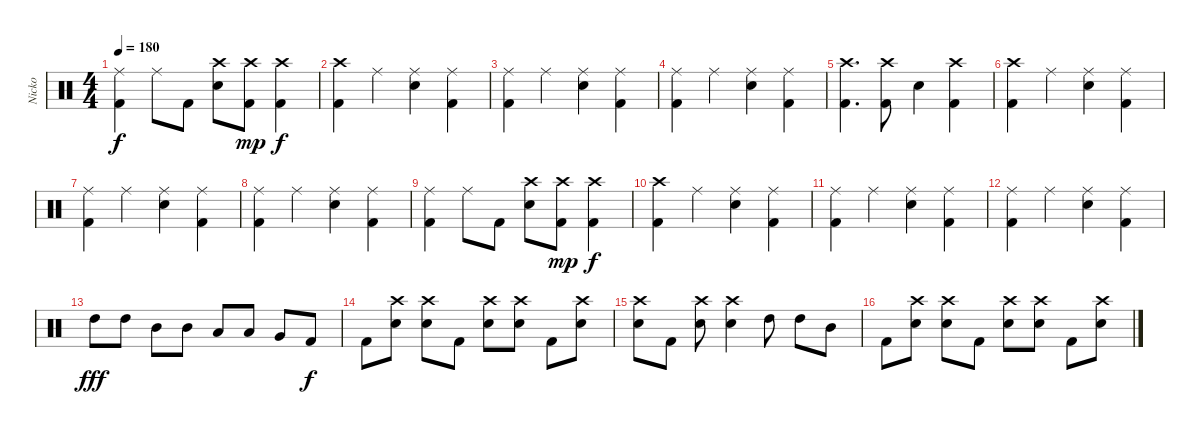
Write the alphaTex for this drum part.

\track ("Nicko" "Nicko") {instrument percussion}
\staff {score}
\articulation defaults
\ts (4 4)
\tempo 180
\clef neutral
\ks c
("Ride (middle)" "Kick (hit) 2").4{dy f} "Ride (middle)".8 "Kick (hit) 2".8 ("Crash high (hit)" "Snare (hit) 2").8 ("Crash high (hit)" "Kick (hit) 2").8{dy mp} ("Crash high (hit)" "Kick (hit) 2").4{dy f} |
("Crash high (hit)" "Kick (hit) 2").4 "Ride (middle)".4 ("Ride (middle)" "Snare (hit) 2").4 ("Ride (middle)" "Kick (hit) 2").4 |
("Ride (middle)" "Kick (hit) 2").4 "Ride (middle)".4 ("Ride (middle)" "Snare (hit) 2").4 ("Ride (middle)" "Kick (hit) 2").4 |
("Ride (middle)" "Kick (hit) 2").4 "Ride (middle)".4 ("Ride (middle)" "Snare (hit) 2").4 ("Ride (middle)" "Kick (hit) 2").4 |
("Crash high (hit)" "Kick (hit) 2").4{d} ("Crash high (hit)" "Kick (hit) 2").8 "Snare (hit) 2".4 ("Crash high (hit)" "Kick (hit) 2").4 |
("Crash high (hit)" "Kick (hit) 2").4 "Ride (middle)".4 ("Ride (middle)" "Snare (hit) 2").4 ("Ride (middle)" "Kick (hit) 2").4 |
("Ride (middle)" "Kick (hit) 2").4 "Ride (middle)".4 ("Ride (middle)" "Snare (hit) 2").4 ("Ride (middle)" "Kick (hit) 2").4 |
("Ride (middle)" "Kick (hit) 2").4 "Ride (middle)".4 ("Ride (middle)" "Snare (hit) 2").4 ("Ride (middle)" "Kick (hit) 2").4 |
("Ride (middle)" "Kick (hit) 2").4 "Ride (middle)".8 "Kick (hit) 2".8 ("Crash high (hit)" "Snare (hit) 2").8 ("Crash high (hit)" "Kick (hit) 2").8{dy mp} ("Crash high (hit)" "Kick (hit) 2").4{dy f} |
("Crash high (hit)" "Kick (hit) 2").4 "Ride (middle)".4 ("Ride (middle)" "Snare (hit) 2").4 ("Ride (middle)" "Kick (hit) 2").4 |
("Ride (middle)" "Kick (hit) 2").4 "Ride (middle)".4 ("Ride (middle)" "Snare (hit) 2").4 ("Ride (middle)" "Kick (hit) 2").4 |
("Ride (middle)" "Kick (hit) 2").4 "Ride (middle)".4 ("Ride (middle)" "Snare (hit) 2").4 ("Ride (middle)" "Kick (hit) 2").4 |
"High Tom (hit)".8{dy fff} "High Tom (hit)".8 "Mid Tom (hit)".8 "Mid Tom (hit)".8 "Low Tom (hit)".8 "Low Tom (hit)".8 "Very Low Tom (hit)".8 "Kick (hit) 2".8{dy f} |
"Kick (hit) 2".8 ("Crash high (hit)" "Snare (hit) 2").8 ("Crash high (hit)" "Snare (hit) 2").8 "Kick (hit) 2".8 ("Crash high (hit)" "Snare (hit) 2").8 ("Crash high (hit)" "Snare (hit) 2").8 "Kick (hit) 2".8 ("Crash high (hit)" "Snare (hit) 2").8 |
("Crash high (hit)" "Snare (hit) 2").8 "Kick (hit) 2".8 ("Crash high (hit)" "Snare (hit) 2").8 ("Crash high (hit)" "Snare (hit) 2").4 "High Tom (hit)".8 "High Tom (hit)".8 "Mid Tom (hit)".8 |
"Kick (hit) 2".8 ("Crash high (hit)" "Snare (hit) 2").8 ("Crash high (hit)" "Snare (hit) 2").8 "Kick (hit) 2".8 ("Crash high (hit)" "Snare (hit) 2").8 ("Crash high (hit)" "Snare (hit) 2").8 "Kick (hit) 2".8 ("Crash high (hit)" "Snare (hit) 2").8
